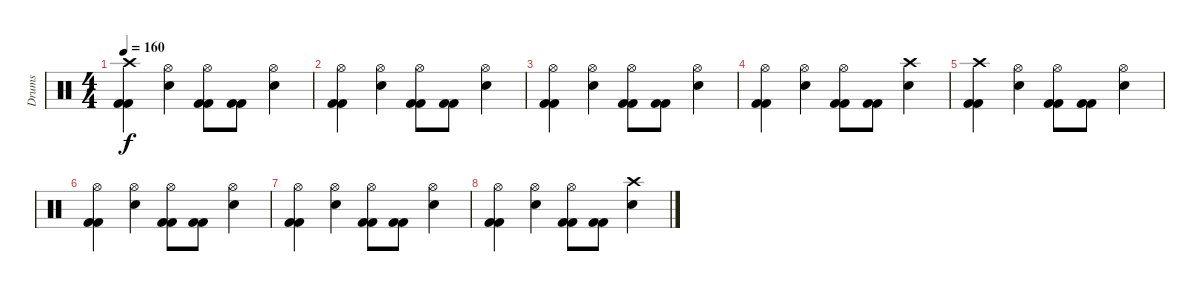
\track ("Drums" "Drums") {instrument percussion}
\staff {score}
\articulation defaults
\ts (4 4)
\tempo 160
\clef neutral
\ks c
("Crash high (hit)" "Kick (hit) 2" "Kick (hit) 2").4{dy f} ("Electric Snare (hit)" "Hi-Hat (open)").4 ("Kick (hit) 2" "Kick (hit) 2" "Hi-Hat (open)").8 ("Kick (hit) 2" "Kick (hit) 2").8 ("Hi-Hat (open)" "Electric Snare (hit)").4 |
("Hi-Hat (open)" "Kick (hit) 2" "Kick (hit) 2").4 ("Electric Snare (hit)" "Hi-Hat (open)").4 ("Kick (hit) 2" "Kick (hit) 2" "Hi-Hat (open)").8 ("Kick (hit) 2" "Kick (hit) 2").8 ("Hi-Hat (open)" "Electric Snare (hit)").4 |
("Hi-Hat (open)" "Kick (hit) 2" "Kick (hit) 2").4 ("Electric Snare (hit)" "Hi-Hat (open)").4 ("Kick (hit) 2" "Kick (hit) 2" "Hi-Hat (open)").8 ("Kick (hit) 2" "Kick (hit) 2").8 ("Hi-Hat (open)" "Electric Snare (hit)").4 |
("Hi-Hat (open)" "Kick (hit) 2" "Kick (hit) 2").4 ("Electric Snare (hit)" "Hi-Hat (open)").4 ("Kick (hit) 2" "Kick (hit) 2" "Hi-Hat (open)").8 ("Kick (hit) 2" "Kick (hit) 2").8 ("Crash high (hit)" "Electric Snare (hit)").4 |
("Crash high (hit)" "Kick (hit) 2" "Kick (hit) 2").4 ("Electric Snare (hit)" "Hi-Hat (open)").4 ("Kick (hit) 2" "Kick (hit) 2" "Hi-Hat (open)").8 ("Kick (hit) 2" "Kick (hit) 2").8 ("Hi-Hat (open)" "Electric Snare (hit)").4 |
("Hi-Hat (open)" "Kick (hit) 2" "Kick (hit) 2").4 ("Electric Snare (hit)" "Hi-Hat (open)").4 ("Kick (hit) 2" "Kick (hit) 2" "Hi-Hat (open)").8 ("Kick (hit) 2" "Kick (hit) 2").8 ("Hi-Hat (open)" "Electric Snare (hit)").4 |
("Hi-Hat (open)" "Kick (hit) 2" "Kick (hit) 2").4 ("Electric Snare (hit)" "Hi-Hat (open)").4 ("Kick (hit) 2" "Kick (hit) 2" "Hi-Hat (open)").8 ("Kick (hit) 2" "Kick (hit) 2").8 ("Hi-Hat (open)" "Electric Snare (hit)").4 |
("Hi-Hat (open)" "Kick (hit) 2" "Kick (hit) 2").4 ("Electric Snare (hit)" "Hi-Hat (open)").4 ("Kick (hit) 2" "Kick (hit) 2" "Hi-Hat (open)").8 ("Kick (hit) 2" "Kick (hit) 2").8 ("Crash high (hit)" "Electric Snare (hit)").4
